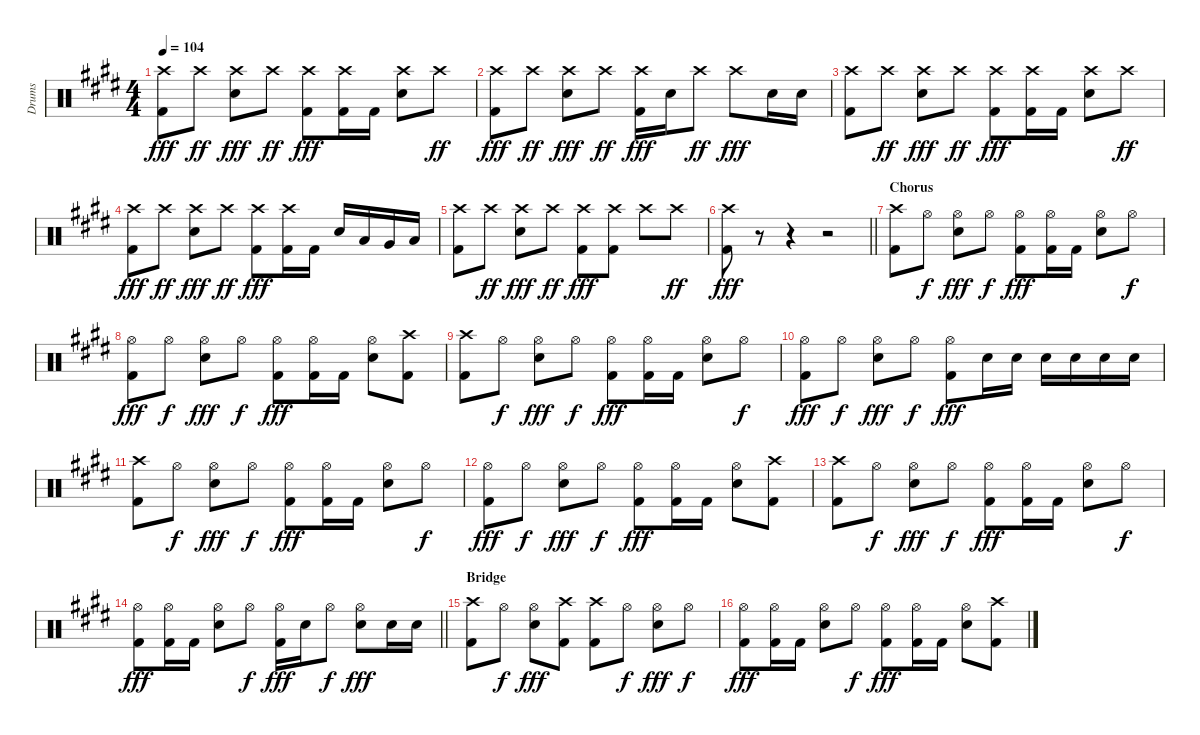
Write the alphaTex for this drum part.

\track ("Drums" "Drums") {instrument percussion}
\staff {score}
\articulation defaults
\ts (4 4)
\tempo 104
\clef neutral
\ks e
("Crash high (hit)" "Kick (hit) 2").8{dy fff} "Crash high (hit)".8{dy ff} ("Crash high (hit)" "Snare (hit) 2").8{dy fff} "Crash high (hit)".8{dy ff} ("Crash high (hit)" "Kick (hit) 2").8{dy fff} ("Crash high (hit)" "Kick (hit) 2").16 "Kick (hit) 2".16 ("Crash high (hit)" "Snare (hit) 2").8 "Crash high (hit)".8{dy ff} |
("Crash high (hit)" "Kick (hit) 2").8{dy fff} "Crash high (hit)".8{dy ff} ("Crash high (hit)" "Snare (hit) 2").8{dy fff} "Crash high (hit)".8{dy ff} ("Crash high (hit)" "Kick (hit) 2").16{dy fff} "Snare (hit) 2".16 "Crash high (hit)".8{dy ff} "Crash high (hit)".8{dy fff} "Snare (hit) 2".16 "Snare (hit) 2".16 |
("Crash high (hit)" "Kick (hit) 2").8 "Crash high (hit)".8{dy ff} ("Crash high (hit)" "Snare (hit) 2").8{dy fff} "Crash high (hit)".8{dy ff} ("Crash high (hit)" "Kick (hit) 2").8{dy fff} ("Crash high (hit)" "Kick (hit) 2").16 "Kick (hit) 2".16 ("Crash high (hit)" "Snare (hit) 2").8 "Crash high (hit)".8{dy ff} |
("Crash high (hit)" "Kick (hit) 2").8{dy fff} "Crash high (hit)".8{dy ff} ("Crash high (hit)" "Snare (hit) 2").8{dy fff} "Crash high (hit)".8{dy ff} ("Crash high (hit)" "Kick (hit) 2").8{dy fff} ("Crash high (hit)" "Kick (hit) 2").16 "Kick (hit) 2".16 "Snare (hit) 2".16 "Low Tom (hit)".16 "Very Low Tom (hit)".16 "Low Floor Tom (hit)".16 |
("Crash high (hit)" "Kick (hit) 2").8 "Crash high (hit)".8{dy ff} ("Crash high (hit)" "Snare (hit) 2").8{dy fff} "Crash high (hit)".8{dy ff} ("Crash high (hit)" "Kick (hit) 2").8{dy fff} ("Crash high (hit)" "Kick (hit) 2").8 "Crash high (hit)".8 "Crash high (hit)".8{dy ff} |
\barLineRight lightlight
("Crash high (hit)" "Kick (hit) 2").8{dy fff} r.8 r.4 r.2 |
\section ("" "Chorus")
("Crash high (hit)" "Kick (hit) 2").8 "Hi-Hat (open)".8{dy f} ("Hi-Hat (open)" "Snare (hit) 2").8{dy fff} "Hi-Hat (open)".8{dy f} ("Hi-Hat (open)" "Kick (hit) 2").8{dy fff} ("Hi-Hat (open)" "Kick (hit) 2").16 "Kick (hit) 2".16 ("Hi-Hat (open)" "Snare (hit) 2").8 "Hi-Hat (open)".8{dy f} |
("Hi-Hat (open)" "Kick (hit) 2").8{dy fff} "Hi-Hat (open)".8{dy f} ("Hi-Hat (open)" "Snare (hit) 2").8{dy fff} "Hi-Hat (open)".8{dy f} ("Hi-Hat (open)" "Kick (hit) 2").8{dy fff} ("Hi-Hat (open)" "Kick (hit) 2").16 "Kick (hit) 2".16 ("Hi-Hat (open)" "Snare (hit) 2").8 ("Crash high (hit)" "Kick (hit) 2").8 |
("Crash high (hit)" "Kick (hit) 2").8 "Hi-Hat (open)".8{dy f} ("Hi-Hat (open)" "Snare (hit) 2").8{dy fff} "Hi-Hat (open)".8{dy f} ("Hi-Hat (open)" "Kick (hit) 2").8{dy fff} ("Hi-Hat (open)" "Kick (hit) 2").16 "Kick (hit) 2".16 ("Hi-Hat (open)" "Snare (hit) 2").8 "Hi-Hat (open)".8{dy f} |
("Hi-Hat (open)" "Kick (hit) 2").8{dy fff} "Hi-Hat (open)".8{dy f} ("Hi-Hat (open)" "Snare (hit) 2").8{dy fff} "Hi-Hat (open)".8{dy f} ("Hi-Hat (open)" "Kick (hit) 2").8{dy fff} "Snare (hit) 2".16 "Snare (hit) 2".16 "Snare (hit) 2".16 "Snare (hit) 2".16 "Snare (hit) 2".16 "Snare (hit) 2".16 |
("Crash high (hit)" "Kick (hit) 2").8 "Hi-Hat (open)".8{dy f} ("Hi-Hat (open)" "Snare (hit) 2").8{dy fff} "Hi-Hat (open)".8{dy f} ("Hi-Hat (open)" "Kick (hit) 2").8{dy fff} ("Hi-Hat (open)" "Kick (hit) 2").16 "Kick (hit) 2".16 ("Hi-Hat (open)" "Snare (hit) 2").8 "Hi-Hat (open)".8{dy f} |
("Hi-Hat (open)" "Kick (hit) 2").8{dy fff} "Hi-Hat (open)".8{dy f} ("Hi-Hat (open)" "Snare (hit) 2").8{dy fff} "Hi-Hat (open)".8{dy f} ("Hi-Hat (open)" "Kick (hit) 2").8{dy fff} ("Hi-Hat (open)" "Kick (hit) 2").16 "Kick (hit) 2".16 ("Hi-Hat (open)" "Snare (hit) 2").8 ("Crash high (hit)" "Kick (hit) 2").8 |
("Crash high (hit)" "Kick (hit) 2").8 "Hi-Hat (open)".8{dy f} ("Hi-Hat (open)" "Snare (hit) 2").8{dy fff} "Hi-Hat (open)".8{dy f} ("Hi-Hat (open)" "Kick (hit) 2").8{dy fff} ("Hi-Hat (open)" "Kick (hit) 2").16 "Kick (hit) 2".16 ("Hi-Hat (open)" "Snare (hit) 2").8 "Hi-Hat (open)".8{dy f} |
\barLineRight lightlight
("Hi-Hat (open)" "Kick (hit) 2").8{dy fff} ("Hi-Hat (open)" "Kick (hit) 2").16 "Kick (hit) 2".16 ("Hi-Hat (open)" "Snare (hit) 2").8 "Hi-Hat (open)".8{dy f} ("Hi-Hat (open)" "Kick (hit) 2").16{dy fff} "Snare (hit) 2".16 "Hi-Hat (open)".8{dy f} ("Hi-Hat (open)" "Snare (hit) 2").8{dy fff} "Snare (hit) 2".16 "Snare (hit) 2".16 |
\section ("" "Bridge")
("Crash high (hit)" "Kick (hit) 2").8 "Hi-Hat (open)".8{dy f} ("Hi-Hat (open)" "Snare (hit) 2").8{dy fff} ("Crash high (hit)" "Kick (hit) 2").8 ("Crash high (hit)" "Kick (hit) 2").8 "Hi-Hat (open)".8{dy f} ("Hi-Hat (open)" "Snare (hit) 2").8{dy fff} "Hi-Hat (open)".8{dy f} |
("Hi-Hat (open)" "Kick (hit) 2").8{dy fff} ("Hi-Hat (open)" "Kick (hit) 2").16 "Kick (hit) 2".16 ("Hi-Hat (open)" "Snare (hit) 2").8 "Hi-Hat (open)".8{dy f} ("Hi-Hat (open)" "Kick (hit) 2").8{dy fff} ("Hi-Hat (open)" "Kick (hit) 2").16 "Kick (hit) 2".16 ("Hi-Hat (open)" "Snare (hit) 2").8 ("Crash high (hit)" "Kick (hit) 2").8
